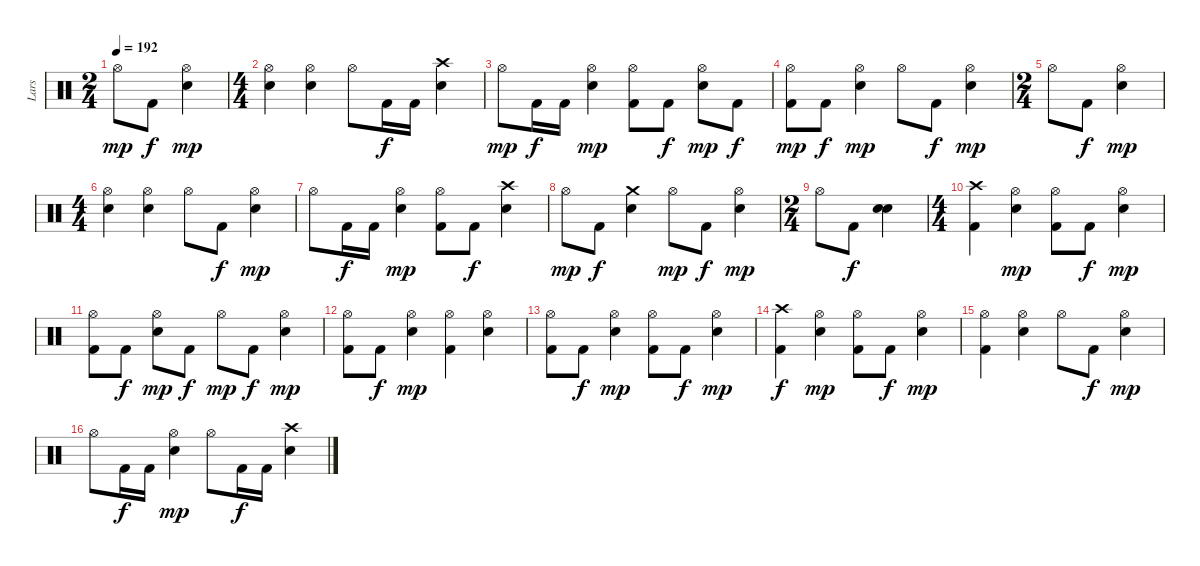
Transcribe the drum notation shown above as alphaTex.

\track ("Lars" "Lars") {instrument percussion}
\staff {score}
\articulation defaults
\ts (2 4)
\tempo 192
\clef neutral
\ks c "Hi-Hat (open)".8{dy mp} "Kick (hit) 2".8{dy f}
("Hi-Hat (open)" "Snare (hit) 2").4{dy mp} |
\ts (4 4)
("Hi-Hat (open)" "Snare (hit) 2").4 ("Hi-Hat (open)" "Snare (hit) 2").4 "Hi-Hat (open)".8 "Kick (hit) 2".16{dy f} "Kick (hit) 2".16 ("Crash high (hit)" "Snare (hit) 2").4 |
"Hi-Hat (open)".8{dy mp} "Kick (hit) 2".16{dy f} "Kick (hit) 2".16 ("Hi-Hat (open)" "Snare (hit) 2").4{dy mp} ("Hi-Hat (open)" "Kick (hit) 2").8 "Kick (hit) 2".8{dy f} ("Hi-Hat (open)" "Snare (hit) 2").8{dy mp} "Kick (hit) 2".8{dy f} |
("Hi-Hat (open)" "Kick (hit) 2").8{dy mp} "Kick (hit) 2".8{dy f} ("Hi-Hat (open)" "Snare (hit) 2").4{dy mp} "Hi-Hat (open)".8 "Kick (hit) 2".8{dy f} ("Hi-Hat (open)" "Snare (hit) 2").4{dy mp} |
\ts (2 4)
"Hi-Hat (open)".8 "Kick (hit) 2".8{dy f} ("Hi-Hat (open)" "Snare (hit) 2").4{dy mp} |
\ts (4 4)
("Hi-Hat (open)" "Snare (hit) 2").4 ("Hi-Hat (open)" "Snare (hit) 2").4 "Hi-Hat (open)".8 "Kick (hit) 2".8{dy f} ("Hi-Hat (open)" "Snare (hit) 2").4{dy mp} |
"Hi-Hat (open)".8 "Kick (hit) 2".16{dy f} "Kick (hit) 2".16 ("Hi-Hat (open)" "Snare (hit) 2").4{dy mp} ("Hi-Hat (open)" "Kick (hit) 2").8 "Kick (hit) 2".8{dy f} ("Crash high (hit)" "Snare (hit) 2").4 |
"Hi-Hat (open)".8{dy mp} "Kick (hit) 2".8{dy f} ("Crash medium (hit)" "Snare (hit) 2").4 "Hi-Hat (open)".8{dy mp} "Kick (hit) 2".8{dy f} ("Hi-Hat (open)" "Snare (hit) 2").4{dy mp} |
\ts (2 4)
"Hi-Hat (open)".8 "Kick (hit) 2".8{dy f} ("Snare (hit) 2" "Snare (hit) 2").4 |
\ts (4 4)
("Crash high (hit)" "Kick (hit) 2").4 ("Hi-Hat (open)" "Snare (hit) 2").4{dy mp} ("Hi-Hat (open)" "Kick (hit) 2").8 "Kick (hit) 2".8{dy f} ("Hi-Hat (open)" "Snare (hit) 2").4{dy mp} |
("Hi-Hat (open)" "Kick (hit) 2").8 "Kick (hit) 2".8{dy f} ("Hi-Hat (open)" "Snare (hit) 2").8{dy mp} "Kick (hit) 2".8{dy f} "Hi-Hat (open)".8{dy mp} "Kick (hit) 2".8{dy f} ("Hi-Hat (open)" "Snare (hit) 2").4{dy mp} |
("Hi-Hat (open)" "Kick (hit) 2").8 "Kick (hit) 2".8{dy f} ("Hi-Hat (open)" "Snare (hit) 2").4{dy mp} ("Hi-Hat (open)" "Kick (hit) 2").4 ("Hi-Hat (open)" "Snare (hit) 2").4 |
("Hi-Hat (open)" "Kick (hit) 2").8 "Kick (hit) 2".8{dy f} ("Hi-Hat (open)" "Snare (hit) 2").4{dy mp} ("Hi-Hat (open)" "Kick (hit) 2").8 "Kick (hit) 2".8{dy f} ("Hi-Hat (open)" "Snare (hit) 2").4{dy mp} |
("Crash high (hit)" "Kick (hit) 2").4{dy f} ("Hi-Hat (open)" "Snare (hit) 2").4{dy mp} ("Hi-Hat (open)" "Kick (hit) 2").8 "Kick (hit) 2".8{dy f} ("Hi-Hat (open)" "Snare (hit) 2").4{dy mp} |
("Hi-Hat (open)" "Kick (hit) 2").4 ("Hi-Hat (open)" "Snare (hit) 2").4 "Hi-Hat (open)".8 "Kick (hit) 2".8{dy f} ("Hi-Hat (open)" "Snare (hit) 2").4{dy mp} |
"Hi-Hat (open)".8 "Kick (hit) 2".16{dy f} "Kick (hit) 2".16 ("Hi-Hat (open)" "Snare (hit) 2").4{dy mp} "Hi-Hat (open)".8 "Kick (hit) 2".16{dy f} "Kick (hit) 2".16 ("Crash high (hit)" "Snare (hit) 2").4
